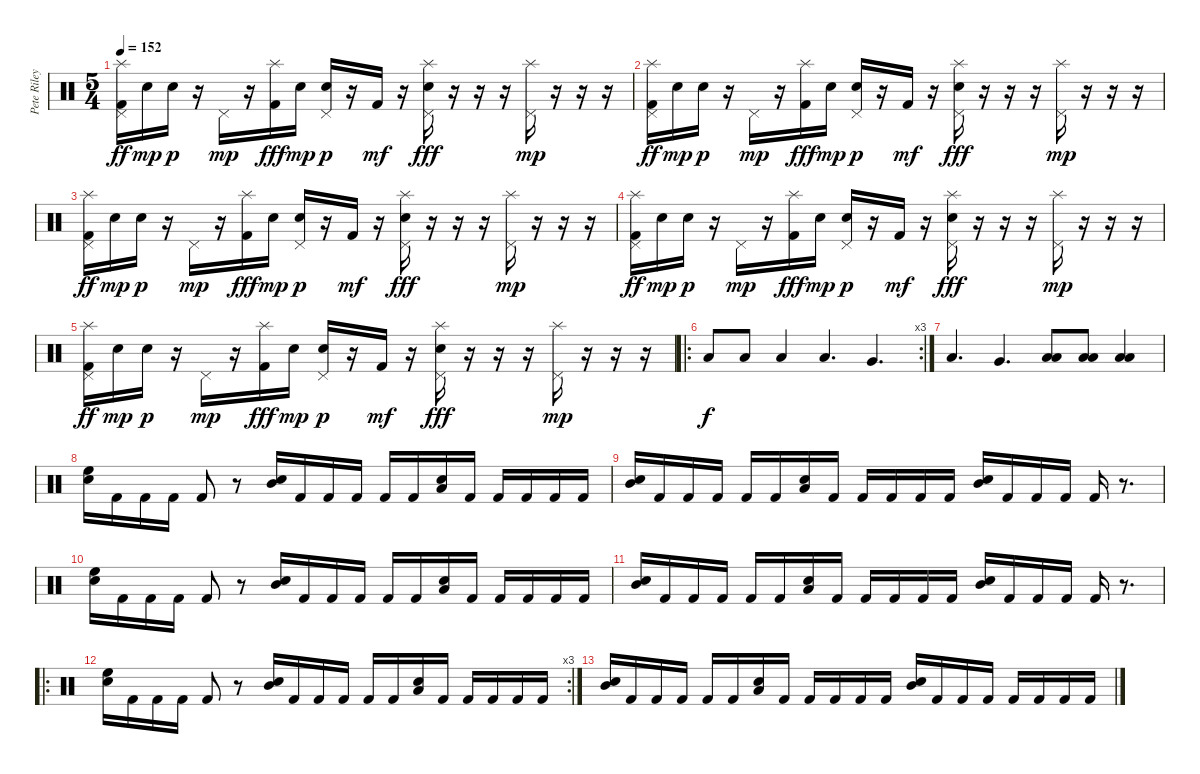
\track ("Pete Riley" "Pete Riley") {instrument percussion}
\staff {score}
\articulation defaults
\ts (5 4)
\tempo 152
\clef neutral
\ks c
("Splash (hit)" "Pedal Hi-Hat (hit)" "Kick (hit) 2").16{dy ff} "Electric Snare (hit)".16{dy mp} "Electric Snare (hit)".16{dy p} r.16 "Pedal Hi-Hat (hit)".16{dy mp} r.16 ("Splash (hit)" "Kick (hit) 2").16{dy fff} "Electric Snare (hit)".16{dy mp} ("Pedal Hi-Hat (hit)" "Electric Snare (hit)").16{dy p} r.16 "Kick (hit) 2".16{dy mf} r.16 ("Splash (hit)" "Pedal Hi-Hat (hit)" "Electric Snare (hit)").16{dy fff} r.16 r.16 r.16 ("Splash (hit)" "Pedal Hi-Hat (hit)").16{dy mp} r.16 r.16 r.16 |
("Splash (hit)" "Pedal Hi-Hat (hit)" "Kick (hit) 2").16{dy ff} "Electric Snare (hit)".16{dy mp} "Electric Snare (hit)".16{dy p} r.16 "Pedal Hi-Hat (hit)".16{dy mp} r.16 ("Splash (hit)" "Kick (hit) 2").16{dy fff} "Electric Snare (hit)".16{dy mp} ("Pedal Hi-Hat (hit)" "Electric Snare (hit)").16{dy p} r.16 "Kick (hit) 2".16{dy mf} r.16 ("Splash (hit)" "Pedal Hi-Hat (hit)" "Electric Snare (hit)").16{dy fff} r.16 r.16 r.16 ("Splash (hit)" "Pedal Hi-Hat (hit)").16{dy mp} r.16 r.16 r.16 |
("Splash (hit)" "Pedal Hi-Hat (hit)" "Kick (hit) 2").16{dy ff} "Electric Snare (hit)".16{dy mp} "Electric Snare (hit)".16{dy p} r.16 "Pedal Hi-Hat (hit)".16{dy mp} r.16 ("Splash (hit)" "Kick (hit) 2").16{dy fff} "Electric Snare (hit)".16{dy mp} ("Pedal Hi-Hat (hit)" "Electric Snare (hit)").16{dy p} r.16 "Kick (hit) 2".16{dy mf} r.16 ("Splash (hit)" "Pedal Hi-Hat (hit)" "Electric Snare (hit)").16{dy fff} r.16 r.16 r.16 ("Splash (hit)" "Pedal Hi-Hat (hit)").16{dy mp} r.16 r.16 r.16 |
("Splash (hit)" "Pedal Hi-Hat (hit)" "Kick (hit) 2").16{dy ff} "Electric Snare (hit)".16{dy mp} "Electric Snare (hit)".16{dy p} r.16 "Pedal Hi-Hat (hit)".16{dy mp} r.16 ("Splash (hit)" "Kick (hit) 2").16{dy fff} "Electric Snare (hit)".16{dy mp} ("Pedal Hi-Hat (hit)" "Electric Snare (hit)").16{dy p} r.16 "Kick (hit) 2".16{dy mf} r.16 ("Splash (hit)" "Pedal Hi-Hat (hit)" "Electric Snare (hit)").16{dy fff} r.16 r.16 r.16 ("Splash (hit)" "Pedal Hi-Hat (hit)").16{dy mp} r.16 r.16 r.16 |
("Splash (hit)" "Pedal Hi-Hat (hit)" "Kick (hit) 2").16{dy ff} "Electric Snare (hit)".16{dy mp} "Electric Snare (hit)".16{dy p} r.16 "Pedal Hi-Hat (hit)".16{dy mp} r.16 ("Splash (hit)" "Kick (hit) 2").16{dy fff} "Electric Snare (hit)".16{dy mp} ("Pedal Hi-Hat (hit)" "Electric Snare (hit)").16{dy p} r.16 "Kick (hit) 2".16{dy mf} r.16 ("Splash (hit)" "Pedal Hi-Hat (hit)" "Electric Snare (hit)").16{dy fff} r.16 r.16 r.16 ("Splash (hit)" "Pedal Hi-Hat (hit)").16{dy mp} r.16 r.16 r.16 |
\ro
\rc 3 "Low Floor Tom (hit)".8{dy f} "Low Floor Tom (hit)".8 "Low Floor Tom (hit)".4 "Low Tom (hit)".4{d} "Very Low Tom (hit)".4{d}
|
"Low Tom (hit)".4{d} "Very Low Tom (hit)".4{d} ("Low Tom (hit)" "Low Floor Tom (hit)").8 ("Low Tom (hit)" "Low Floor Tom (hit)").8 ("Low Tom (hit)" "Low Floor Tom (hit)").4 |
("High Floor Tom (hit)" "Electric Snare (hit)").16 "Kick (hit) 2".16 "Kick (hit) 2".16 "Kick (hit) 2".16 "Kick (hit) 2".8 r.8 ("Mid Tom (hit)" "Electric Snare (hit)").16 "Kick (hit) 2".16 "Kick (hit) 2".16 "Kick (hit) 2".16 "Kick (hit) 2".16 "Kick (hit) 2".16 ("Low Tom (hit)" "Electric Snare (hit)").16 "Kick (hit) 2".16 "Kick (hit) 2".16 "Kick (hit) 2".16 "Kick (hit) 2".16 "Kick (hit) 2".16 |
("Mid Tom (hit)" "Electric Snare (hit)").16 "Kick (hit) 2".16 "Kick (hit) 2".16 "Kick (hit) 2".16 "Kick (hit) 2".16 "Kick (hit) 2".16 ("Low Tom (hit)" "Electric Snare (hit)").16 "Kick (hit) 2".16 "Kick (hit) 2".16 "Kick (hit) 2".16 "Kick (hit) 2".16 "Kick (hit) 2".16 ("Mid Tom (hit)" "Electric Snare (hit)").16 "Kick (hit) 2".16 "Kick (hit) 2".16 "Kick (hit) 2".16 "Kick (hit) 2".16 r.8{d} |
("High Floor Tom (hit)" "Electric Snare (hit)").16 "Kick (hit) 2".16 "Kick (hit) 2".16 "Kick (hit) 2".16 "Kick (hit) 2".8 r.8 ("Mid Tom (hit)" "Electric Snare (hit)").16 "Kick (hit) 2".16 "Kick (hit) 2".16 "Kick (hit) 2".16 "Kick (hit) 2".16 "Kick (hit) 2".16 ("Low Tom (hit)" "Electric Snare (hit)").16 "Kick (hit) 2".16 "Kick (hit) 2".16 "Kick (hit) 2".16 "Kick (hit) 2".16 "Kick (hit) 2".16 |
("Mid Tom (hit)" "Electric Snare (hit)").16 "Kick (hit) 2".16 "Kick (hit) 2".16 "Kick (hit) 2".16 "Kick (hit) 2".16 "Kick (hit) 2".16 ("Low Tom (hit)" "Electric Snare (hit)").16 "Kick (hit) 2".16 "Kick (hit) 2".16 "Kick (hit) 2".16 "Kick (hit) 2".16 "Kick (hit) 2".16 ("Mid Tom (hit)" "Electric Snare (hit)").16 "Kick (hit) 2".16 "Kick (hit) 2".16 "Kick (hit) 2".16 "Kick (hit) 2".16 r.8{d} |
\ro
\rc 3
("High Floor Tom (hit)" "Electric Snare (hit)").16 "Kick (hit) 2".16 "Kick (hit) 2".16 "Kick (hit) 2".16 "Kick (hit) 2".8 r.8 ("Mid Tom (hit)" "Electric Snare (hit)").16 "Kick (hit) 2".16 "Kick (hit) 2".16 "Kick (hit) 2".16 "Kick (hit) 2".16 "Kick (hit) 2".16 ("Low Tom (hit)" "Electric Snare (hit)").16 "Kick (hit) 2".16 "Kick (hit) 2".16 "Kick (hit) 2".16 "Kick (hit) 2".16 "Kick (hit) 2".16 |
("Mid Tom (hit)" "Electric Snare (hit)").16{volume 0} "Kick (hit) 2".16 "Kick (hit) 2".16 "Kick (hit) 2".16 "Kick (hit) 2".16 "Kick (hit) 2".16 ("Low Tom (hit)" "Electric Snare (hit)").16 "Kick (hit) 2".16 "Kick (hit) 2".16 "Kick (hit) 2".16 "Kick (hit) 2".16 "Kick (hit) 2".16 ("Mid Tom (hit)" "Electric Snare (hit)").16 "Kick (hit) 2".16 "Kick (hit) 2".16 "Kick (hit) 2".16 "Kick (hit) 2".16 "Kick (hit) 2".16 "Kick (hit) 2".16 "Kick (hit) 2".16
